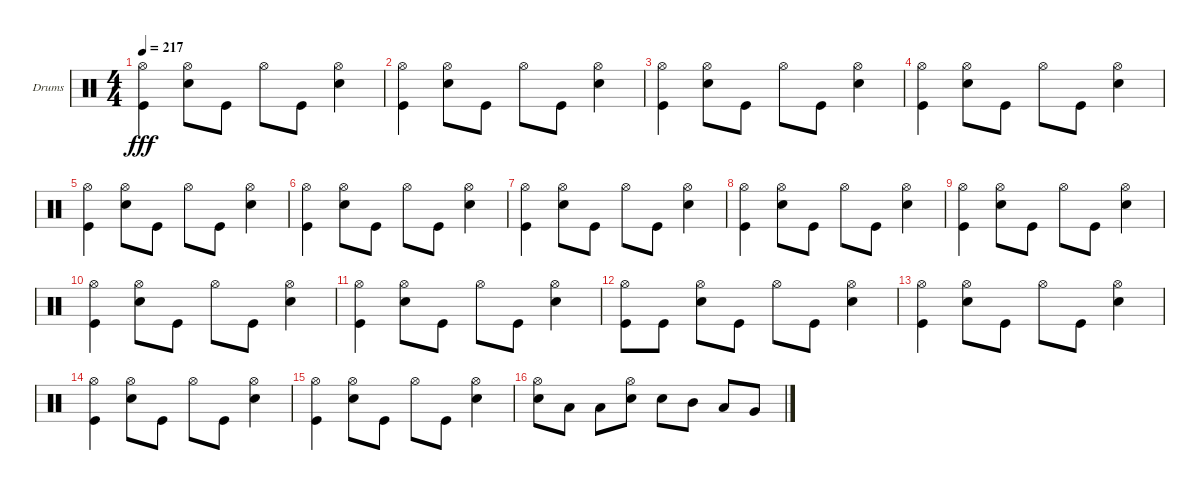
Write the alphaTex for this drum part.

\bracketExtendMode groupsimilarinstruments
\firstSystemTrackNameOrientation horizontal
\otherSystemsTrackNameOrientation horizontal
\track ("Drumkit" "Drums") {instrument percussion}
\staff {score}
\articulation defaults
\ts (4 4)
\tempo 217
\clef neutral
\ks c
("Kick (hit)" "Hi-Hat (open)").4{dy fff} ("Hi-Hat (open)" "Snare (hit) 2").8 "Kick (hit)".8 "Hi-Hat (open)".8 "Kick (hit)".8 ("Snare (hit) 2" "Hi-Hat (open)").4 |
("Kick (hit)" "Hi-Hat (open)").4 ("Hi-Hat (open)" "Snare (hit) 2").8 "Kick (hit)".8 "Hi-Hat (open)".8 "Kick (hit)".8 ("Snare (hit) 2" "Hi-Hat (open)").4 |
("Kick (hit)" "Hi-Hat (open)").4 ("Hi-Hat (open)" "Snare (hit) 2").8 "Kick (hit)".8 "Hi-Hat (open)".8 "Kick (hit)".8 ("Snare (hit) 2" "Hi-Hat (open)").4 |
("Kick (hit)" "Hi-Hat (open)").4 ("Hi-Hat (open)" "Snare (hit) 2").8 "Kick (hit)".8 "Hi-Hat (open)".8 "Kick (hit)".8 ("Snare (hit) 2" "Hi-Hat (open)").4 |
("Kick (hit)" "Hi-Hat (open)").4 ("Hi-Hat (open)" "Snare (hit) 2").8 "Kick (hit)".8 "Hi-Hat (open)".8 "Kick (hit)".8 ("Snare (hit) 2" "Hi-Hat (open)").4 |
("Kick (hit)" "Hi-Hat (open)").4 ("Hi-Hat (open)" "Snare (hit) 2").8 "Kick (hit)".8 "Hi-Hat (open)".8 "Kick (hit)".8 ("Snare (hit) 2" "Hi-Hat (open)").4 |
("Kick (hit)" "Hi-Hat (open)").4 ("Hi-Hat (open)" "Snare (hit) 2").8 "Kick (hit)".8 "Hi-Hat (open)".8 "Kick (hit)".8 ("Snare (hit) 2" "Hi-Hat (open)").4 |
("Kick (hit)" "Hi-Hat (open)").4 ("Hi-Hat (open)" "Snare (hit) 2").8 "Kick (hit)".8 "Hi-Hat (open)".8 "Kick (hit)".8 ("Snare (hit) 2" "Hi-Hat (open)").4 |
("Kick (hit)" "Hi-Hat (open)").4 ("Hi-Hat (open)" "Snare (hit) 2").8 "Kick (hit)".8 "Hi-Hat (open)".8 "Kick (hit)".8 ("Snare (hit) 2" "Hi-Hat (open)").4 |
("Kick (hit)" "Hi-Hat (open)").4 ("Hi-Hat (open)" "Snare (hit) 2").8 "Kick (hit)".8 "Hi-Hat (open)".8 "Kick (hit)".8 ("Snare (hit) 2" "Hi-Hat (open)").4 |
("Kick (hit)" "Hi-Hat (open)").4 ("Hi-Hat (open)" "Snare (hit) 2").8 "Kick (hit)".8 "Hi-Hat (open)".8 "Kick (hit)".8 ("Snare (hit) 2" "Hi-Hat (open)").4 |
("Kick (hit)" "Hi-Hat (open)").8 "Kick (hit)".8 ("Snare (hit) 2" "Hi-Hat (open)").8 "Kick (hit)".8 "Hi-Hat (open)".8 "Kick (hit)".8 ("Snare (hit) 2" "Hi-Hat (open)").4 |
("Kick (hit)" "Hi-Hat (open)").4 ("Hi-Hat (open)" "Snare (hit) 2").8 "Kick (hit)".8 "Hi-Hat (open)".8 "Kick (hit)".8 ("Snare (hit) 2" "Hi-Hat (open)").4 |
("Kick (hit)" "Hi-Hat (open)").4 ("Hi-Hat (open)" "Snare (hit) 2").8 "Kick (hit)".8 "Hi-Hat (open)".8 "Kick (hit)".8 ("Snare (hit) 2" "Hi-Hat (open)").4 |
("Kick (hit)" "Hi-Hat (open)").4 ("Hi-Hat (open)" "Snare (hit) 2").8 "Kick (hit)".8 "Hi-Hat (open)".8 "Kick (hit)".8 ("Snare (hit) 2" "Hi-Hat (open)").4 |
("Snare (hit) 2" "Hi-Hat (open)").8 "Low Tom (hit)".8 "Low Tom (hit)".8 ("Snare (hit) 2" "Hi-Hat (open)").8 "Snare (hit) 2".8 "Mid Tom (hit)".8 "Low Tom (hit)".8 "Very Low Tom (hit)".8
